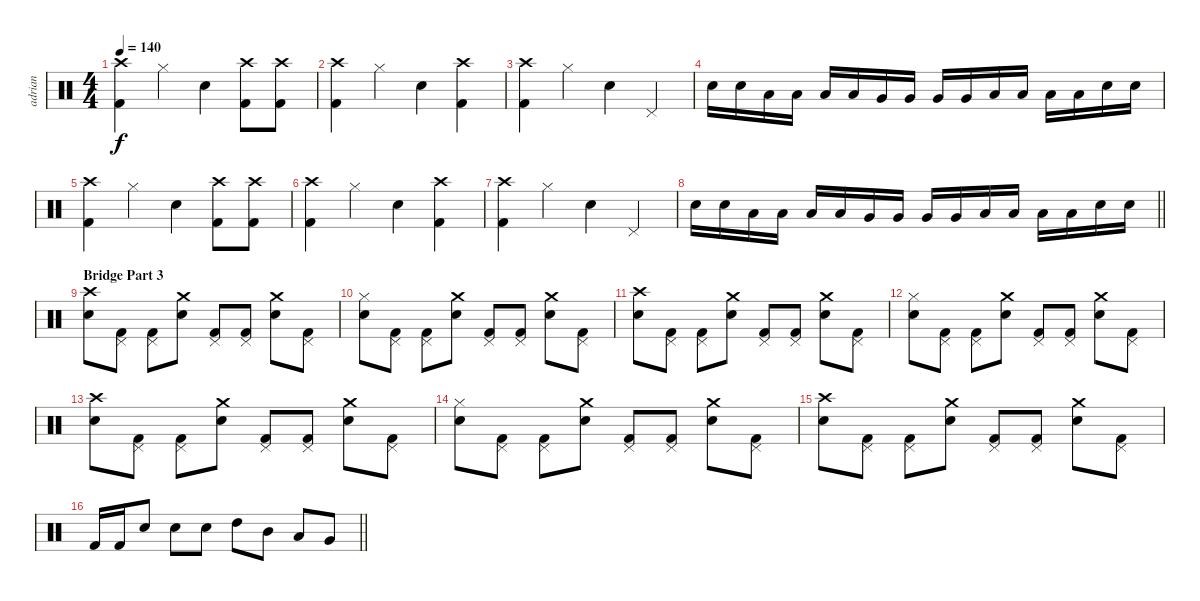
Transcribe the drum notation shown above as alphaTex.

\track ("adrian" "adrian") {instrument percussion}
\staff {score}
\articulation defaults
\ts (4 4)
\tempo 140
\clef neutral
\ks c
("Kick (hit) 2" "Crash high (hit)").4{dy f} "Hi-Hat (closed)".4 "Electric Snare (hit)".4 ("Kick (hit) 2" "Crash high (hit)").8 ("Kick (hit) 2" "Crash high (hit)").8 |
("Kick (hit) 2" "Crash high (hit)").4 "Hi-Hat (closed)".4 "Electric Snare (hit)".4 ("Kick (hit) 2" "Crash high (hit)").4 |
("Kick (hit) 2" "Crash high (hit)").4 "Hi-Hat (closed)".4 "Electric Snare (hit)".4 "Pedal Hi-Hat (hit)".4 |
"Snare (hit) 2".16 "Snare (hit) 2".16 "Low Tom (hit)".16 "Low Tom (hit)".16 "Low Tom (hit)".16 "Low Tom (hit)".16 "Very Low Tom (hit)".16 "Very Low Tom (hit)".16 "Very Low Tom (hit)".16 "Very Low Tom (hit)".16 "Low Floor Tom (hit)".16 "Low Floor Tom (hit)".16 "Low Floor Tom (hit)".16 "Low Floor Tom (hit)".16 "Electric Snare (hit)".16 "Electric Snare (hit)".16 |
("Kick (hit) 2" "Crash high (hit)").4 "Hi-Hat (closed)".4 "Electric Snare (hit)".4 ("Kick (hit) 2" "Crash high (hit)").8 ("Kick (hit) 2" "Crash high (hit)").8 |
("Kick (hit) 2" "Crash high (hit)").4 "Hi-Hat (closed)".4 "Electric Snare (hit)".4 ("Kick (hit) 2" "Crash high (hit)").4 |
("Kick (hit) 2" "Crash high (hit)").4 "Hi-Hat (closed)".4 "Electric Snare (hit)".4 "Pedal Hi-Hat (hit)".4 |
\barLineRight lightlight "Snare (hit) 2".16 "Snare (hit) 2".16 "Low Tom (hit)".16 "Low Tom (hit)".16 "Low Tom (hit)".16 "Low Tom (hit)".16 "Very Low Tom (hit)".16 "Very Low Tom (hit)".16 "Very Low Tom (hit)".16 "Very Low Tom (hit)".16 "Low Floor Tom (hit)".16 "Low Floor Tom (hit)".16 "Low Floor Tom (hit)".16 "Low Floor Tom (hit)".16 "Electric Snare (hit)".16 "Electric Snare (hit)".16
|
\section ("" "Bridge Part 3")
("Electric Snare (hit)" "Crash high (hit)").8 ("Kick (hit) 2" "Pedal Hi-Hat (hit)").8 ("Kick (hit) 2" "Pedal Hi-Hat (hit)").8 ("Electric Snare (hit)" "Crash medium (hit)").8 ("Kick (hit) 2" "Pedal Hi-Hat (hit)").8 ("Kick (hit) 2" "Pedal Hi-Hat (hit)").8 ("Electric Snare (hit)" "Crash medium (hit)").8 ("Kick (hit) 2" "Pedal Hi-Hat (hit)").8 |
("Electric Snare (hit)" "Hi-Hat (closed)").8 ("Kick (hit) 2" "Pedal Hi-Hat (hit)").8 ("Kick (hit) 2" "Pedal Hi-Hat (hit)").8 ("Electric Snare (hit)" "Crash medium (hit)").8 ("Kick (hit) 2" "Pedal Hi-Hat (hit)").8 ("Kick (hit) 2" "Pedal Hi-Hat (hit)").8 ("Electric Snare (hit)" "Crash medium (hit)").8 ("Kick (hit) 2" "Pedal Hi-Hat (hit)").8 |
("Electric Snare (hit)" "Crash high (hit)").8 ("Kick (hit) 2" "Pedal Hi-Hat (hit)").8 ("Kick (hit) 2" "Pedal Hi-Hat (hit)").8 ("Electric Snare (hit)" "Crash medium (hit)").8 ("Kick (hit) 2" "Pedal Hi-Hat (hit)").8 ("Kick (hit) 2" "Pedal Hi-Hat (hit)").8 ("Electric Snare (hit)" "Crash medium (hit)").8 ("Kick (hit) 2" "Pedal Hi-Hat (hit)").8 |
("Electric Snare (hit)" "Hi-Hat (closed)").8 ("Kick (hit) 2" "Pedal Hi-Hat (hit)").8 ("Kick (hit) 2" "Pedal Hi-Hat (hit)").8 ("Electric Snare (hit)" "Crash medium (hit)").8 ("Kick (hit) 2" "Pedal Hi-Hat (hit)").8 ("Kick (hit) 2" "Pedal Hi-Hat (hit)").8 ("Electric Snare (hit)" "Crash medium (hit)").8 ("Kick (hit) 2" "Pedal Hi-Hat (hit)").8 |
("Electric Snare (hit)" "Crash high (hit)").8 ("Kick (hit) 2" "Pedal Hi-Hat (hit)").8 ("Kick (hit) 2" "Pedal Hi-Hat (hit)").8 ("Electric Snare (hit)" "Crash medium (hit)").8 ("Kick (hit) 2" "Pedal Hi-Hat (hit)").8 ("Kick (hit) 2" "Pedal Hi-Hat (hit)").8 ("Electric Snare (hit)" "Crash medium (hit)").8 ("Kick (hit) 2" "Pedal Hi-Hat (hit)").8 |
("Electric Snare (hit)" "Hi-Hat (closed)").8 ("Kick (hit) 2" "Pedal Hi-Hat (hit)").8 ("Kick (hit) 2" "Pedal Hi-Hat (hit)").8 ("Electric Snare (hit)" "Crash medium (hit)").8 ("Kick (hit) 2" "Pedal Hi-Hat (hit)").8 ("Kick (hit) 2" "Pedal Hi-Hat (hit)").8 ("Electric Snare (hit)" "Crash medium (hit)").8 ("Kick (hit) 2" "Pedal Hi-Hat (hit)").8 |
("Electric Snare (hit)" "Crash high (hit)").8 ("Kick (hit) 2" "Pedal Hi-Hat (hit)").8 ("Kick (hit) 2" "Pedal Hi-Hat (hit)").8 ("Electric Snare (hit)" "Crash medium (hit)").8 ("Kick (hit) 2" "Pedal Hi-Hat (hit)").8 ("Kick (hit) 2" "Pedal Hi-Hat (hit)").8 ("Electric Snare (hit)" "Crash medium (hit)").8 ("Kick (hit) 2" "Pedal Hi-Hat (hit)").8 |
\barLineRight lightlight "Kick (hit) 2".16 "Kick (hit) 2".16 "Electric Snare (hit)".8 "Electric Snare (hit)".8 "Electric Snare (hit)".8 "High Tom (hit)".8 "Mid Tom (hit)".8 "Low Tom (hit)".8 "Very Low Tom (hit)".8
